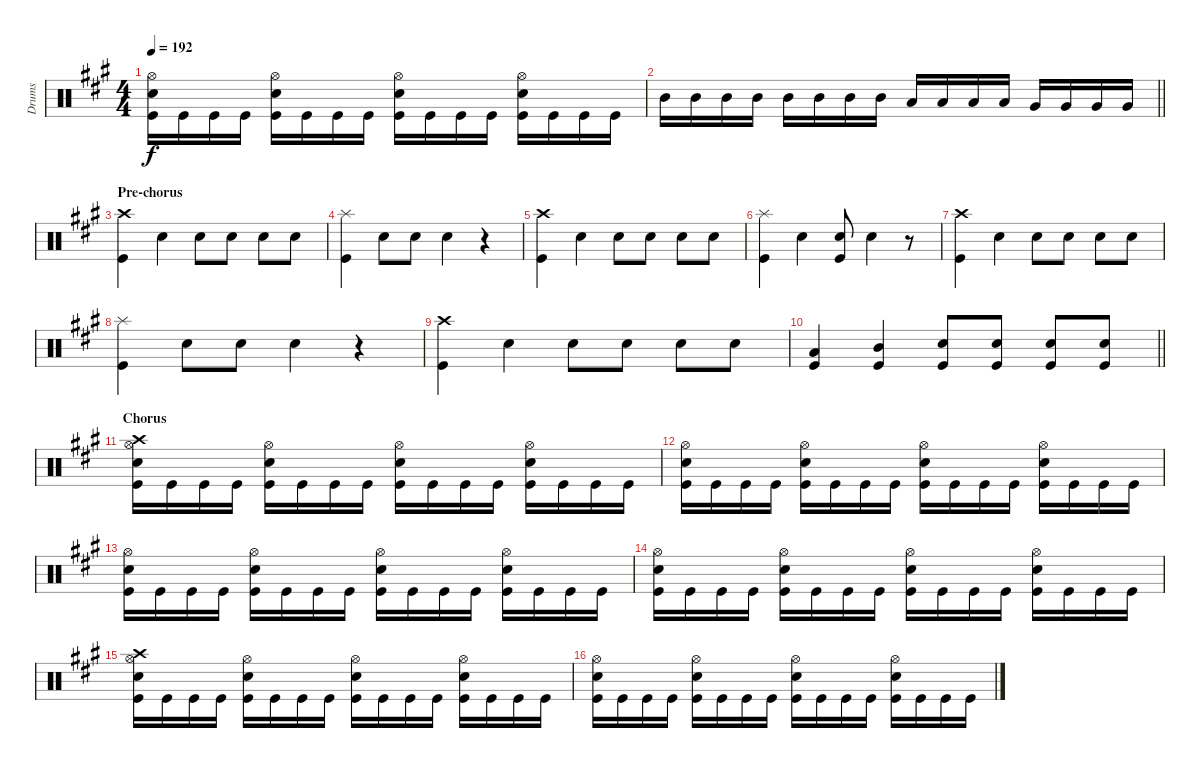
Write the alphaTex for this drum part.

\track ("Drums" "Drums") {instrument percussion}
\staff {score}
\articulation defaults
\ts (4 4)
\tempo 192
\clef neutral
\ks f#minor
("Hi-Hat (open)" "Snare (hit) 2" "Kick (hit)").16{dy f} "Kick (hit)".16 "Kick (hit)".16 "Kick (hit)".16 ("Hi-Hat (open)" "Snare (hit) 2" "Kick (hit)").16 "Kick (hit)".16 "Kick (hit)".16 "Kick (hit)".16 ("Hi-Hat (open)" "Snare (hit) 2" "Kick (hit)").16 "Kick (hit)".16 "Kick (hit)".16 "Kick (hit)".16 ("Hi-Hat (open)" "Snare (hit) 2" "Kick (hit)").16 "Kick (hit)".16 "Kick (hit)".16 "Kick (hit)".16 |
\barLineRight lightlight "Mid Tom (hit)".16 "Mid Tom (hit)".16 "Mid Tom (hit)".16 "Mid Tom (hit)".16 "Mid Tom (hit)".16 "Mid Tom (hit)".16 "Mid Tom (hit)".16 "Mid Tom (hit)".16 "Low Tom (hit)".16 "Low Tom (hit)".16 "Low Tom (hit)".16 "Low Tom (hit)".16 "Very Low Tom (hit)".16 "Very Low Tom (hit)".16 "Very Low Tom (hit)".16 "Very Low Tom (hit)".16
|
\section ("" "Pre-chorus")
("Crash high (hit)" "Kick (hit)").4 "Snare (hit) 2".4 "Snare (hit) 2".8 "Snare (hit) 2".8 "Snare (hit) 2".8 "Snare (hit) 2".8 |
("Splash (hit)" "Kick (hit)").4 "Snare (hit) 2".8 "Snare (hit) 2".8 "Snare (hit) 2".4 r.4 |
("Crash high (hit)" "Kick (hit)").4 "Snare (hit) 2".4 "Snare (hit) 2".8 "Snare (hit) 2".8 "Snare (hit) 2".8 "Snare (hit) 2".8 |
("Splash (hit)" "Kick (hit)").4 "Snare (hit) 2"{tr (38 16)}.4 ("Snare (hit) 2" "Kick (hit)").8 "Snare (hit) 2".4 r.8 |
("Crash high (hit)" "Kick (hit)").4 "Snare (hit) 2".4 "Snare (hit) 2".8 "Snare (hit) 2".8 "Snare (hit) 2".8 "Snare (hit) 2".8 |
("Splash (hit)" "Kick (hit)").4 "Snare (hit) 2".8 "Snare (hit) 2".8 "Snare (hit) 2".4 r.4 |
("Crash high (hit)" "Kick (hit)").4 "Snare (hit) 2"{tr (38 16)}.4 "Snare (hit) 2".8 "Snare (hit) 2".8 "Snare (hit) 2".8 "Snare (hit) 2".8 |
\barLineRight lightlight
("Low Tom (hit)" "Kick (hit)").4 ("Mid Tom (hit)" "Kick (hit)").4 ("Snare (hit) 2" "Kick (hit)").8 ("Snare (hit) 2" "Kick (hit)").8 ("Snare (hit) 2" "Kick (hit)").8 ("Snare (hit) 2" "Kick (hit)").8 |
\section ("" "Chorus")
("Crash high (hit)" "Hi-Hat (open)" "Snare (hit) 2" "Kick (hit)").16 "Kick (hit)".16 "Kick (hit)".16 "Kick (hit)".16 ("Hi-Hat (open)" "Snare (hit) 2" "Kick (hit)").16 "Kick (hit)".16 "Kick (hit)".16 "Kick (hit)".16 ("Hi-Hat (open)" "Snare (hit) 2" "Kick (hit)").16 "Kick (hit)".16 "Kick (hit)".16 "Kick (hit)".16 ("Hi-Hat (open)" "Snare (hit) 2" "Kick (hit)").16 "Kick (hit)".16 "Kick (hit)".16 "Kick (hit)".16 |
("Hi-Hat (open)" "Snare (hit) 2" "Kick (hit)").16 "Kick (hit)".16 "Kick (hit)".16 "Kick (hit)".16 ("Hi-Hat (open)" "Snare (hit) 2" "Kick (hit)").16 "Kick (hit)".16 "Kick (hit)".16 "Kick (hit)".16 ("Hi-Hat (open)" "Snare (hit) 2" "Kick (hit)").16 "Kick (hit)".16 "Kick (hit)".16 "Kick (hit)".16 ("Hi-Hat (open)" "Snare (hit) 2" "Kick (hit)").16 "Kick (hit)".16 "Kick (hit)".16 "Kick (hit)".16 |
("Hi-Hat (open)" "Snare (hit) 2" "Kick (hit)").16 "Kick (hit)".16 "Kick (hit)".16 "Kick (hit)".16 ("Hi-Hat (open)" "Snare (hit) 2" "Kick (hit)").16 "Kick (hit)".16 "Kick (hit)".16 "Kick (hit)".16 ("Hi-Hat (open)" "Snare (hit) 2" "Kick (hit)").16 "Kick (hit)".16 "Kick (hit)".16 "Kick (hit)".16 ("Hi-Hat (open)" "Snare (hit) 2" "Kick (hit)").16 "Kick (hit)".16 "Kick (hit)".16 "Kick (hit)".16 |
("Hi-Hat (open)" "Snare (hit) 2" "Kick (hit)").16 "Kick (hit)".16 "Kick (hit)".16 "Kick (hit)".16 ("Hi-Hat (open)" "Snare (hit) 2" "Kick (hit)").16 "Kick (hit)".16 "Kick (hit)".16 "Kick (hit)".16 ("Hi-Hat (open)" "Snare (hit) 2" "Kick (hit)").16 "Kick (hit)".16 "Kick (hit)".16 "Kick (hit)".16 ("Hi-Hat (open)" "Snare (hit) 2" "Kick (hit)").16 "Kick (hit)".16 "Kick (hit)".16 "Kick (hit)".16 |
("Crash high (hit)" "Hi-Hat (open)" "Snare (hit) 2" "Kick (hit)").16 "Kick (hit)".16 "Kick (hit)".16 "Kick (hit)".16 ("Hi-Hat (open)" "Snare (hit) 2" "Kick (hit)").16 "Kick (hit)".16 "Kick (hit)".16 "Kick (hit)".16 ("Hi-Hat (open)" "Snare (hit) 2" "Kick (hit)").16 "Kick (hit)".16 "Kick (hit)".16 "Kick (hit)".16 ("Hi-Hat (open)" "Snare (hit) 2" "Kick (hit)").16 "Kick (hit)".16 "Kick (hit)".16 "Kick (hit)".16 |
("Hi-Hat (open)" "Snare (hit) 2" "Kick (hit)").16 "Kick (hit)".16 "Kick (hit)".16 "Kick (hit)".16 ("Hi-Hat (open)" "Snare (hit) 2" "Kick (hit)").16 "Kick (hit)".16 "Kick (hit)".16 "Kick (hit)".16 ("Hi-Hat (open)" "Snare (hit) 2" "Kick (hit)").16 "Kick (hit)".16 "Kick (hit)".16 "Kick (hit)".16 ("Hi-Hat (open)" "Snare (hit) 2" "Kick (hit)").16 "Kick (hit)".16 "Kick (hit)".16 "Kick (hit)".16
